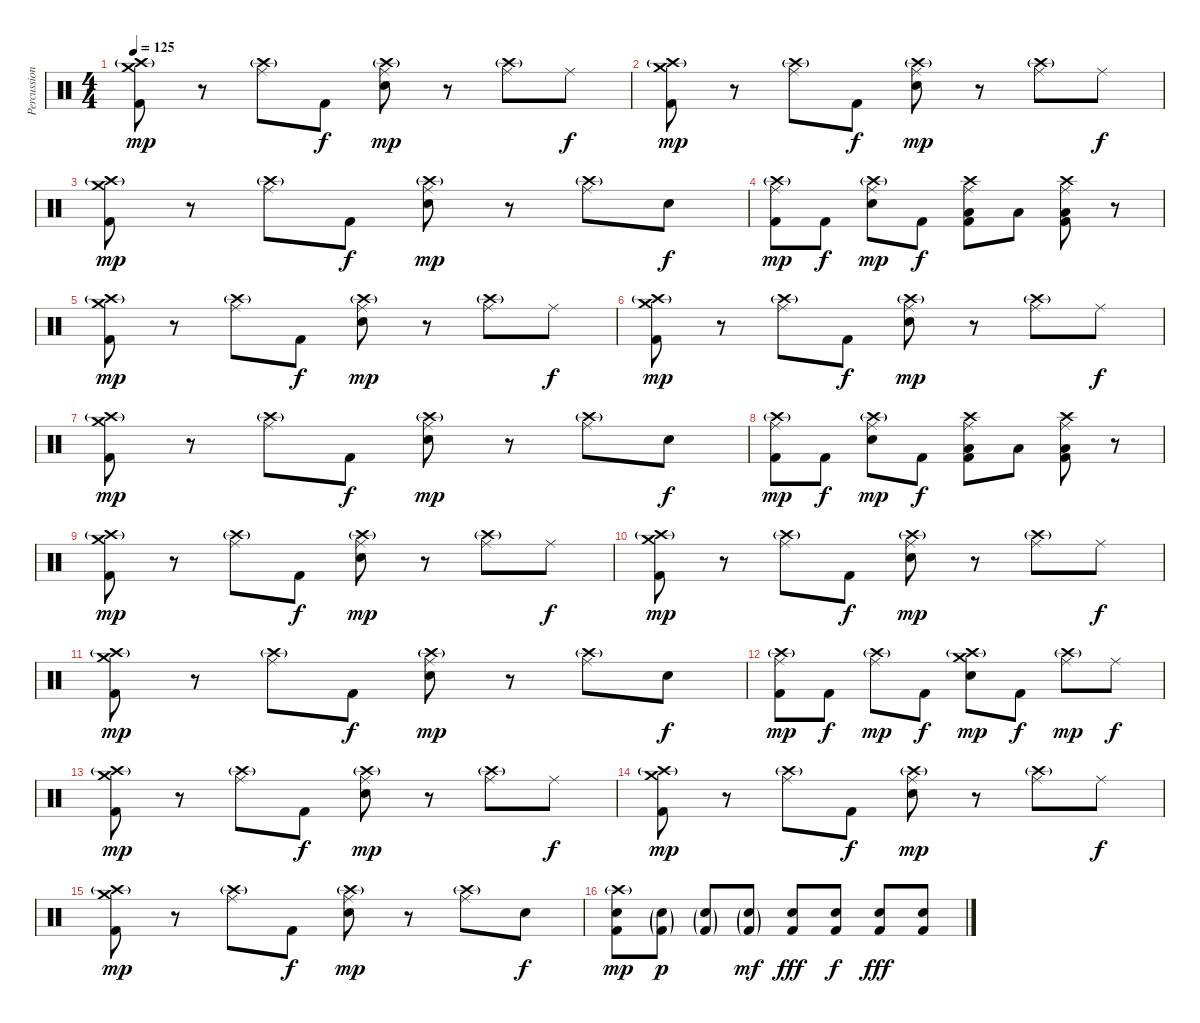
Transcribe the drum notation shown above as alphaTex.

\track ("Percussion" "Percussion") {instrument percussion}
\staff {score}
\articulation defaults
\ts (4 4)
\tempo 125
\clef neutral
\ks c
("Crash medium (hit)" "Crash high (hit)"{g} "Kick (hit) 2").8{dy mp} r.8 ("Ride (middle)" "Crash high (hit)"{g}).8 "Kick (hit) 2".8{dy f} ("Ride (middle)" "Crash high (hit)"{g} "Snare (hit) 2").8{dy mp} r.8 ("Ride (middle)" "Crash high (hit)"{g}).8 "Ride (middle)".8{dy f} |
("Crash medium (hit)" "Crash high (hit)"{g} "Kick (hit) 2").8{dy mp} r.8 ("Ride (middle)" "Crash high (hit)"{g}).8 "Kick (hit) 2".8{dy f} ("Ride (middle)" "Crash high (hit)"{g} "Snare (hit) 2").8{dy mp} r.8 ("Ride (middle)" "Crash high (hit)"{g}).8 "Ride (middle)".8{dy f} |
("Crash medium (hit)" "Crash high (hit)"{g} "Kick (hit) 2").8{dy mp} r.8 ("Ride (middle)" "Crash high (hit)"{g}).8 "Kick (hit) 2".8{dy f} ("Ride (middle)" "Crash high (hit)"{g} "Snare (hit) 2").8{dy mp} r.8 ("Ride (middle)" "Crash high (hit)"{g}).8 "Snare (hit) 2".8{dy f} |
("Ride (middle)" "Crash high (hit)"{g} "Kick (hit) 2").8{dy mp} "Kick (hit) 2".8{dy f} ("Ride (middle)" "Crash high (hit)"{g} "Snare (hit) 2").8{dy mp} "Kick (hit) 2".8{dy f} ("Ride (middle)" "Crash high (hit)" "Low Floor Tom (hit)" "Kick (hit) 2").8 "Low Tom (hit)".8 ("Ride (middle)" "Crash high (hit)" "Low Floor Tom (hit)" "Kick (hit) 2").8 r.8 |
("Crash medium (hit)" "Crash high (hit)"{g} "Kick (hit) 2").8{dy mp} r.8 ("Ride (middle)" "Crash high (hit)"{g}).8 "Kick (hit) 2".8{dy f} ("Ride (middle)" "Crash high (hit)"{g} "Snare (hit) 2").8{dy mp} r.8 ("Ride (middle)" "Crash high (hit)"{g}).8 "Ride (middle)".8{dy f} |
("Crash medium (hit)" "Crash high (hit)"{g} "Kick (hit) 2").8{dy mp} r.8 ("Ride (middle)" "Crash high (hit)"{g}).8 "Kick (hit) 2".8{dy f} ("Ride (middle)" "Crash high (hit)"{g} "Snare (hit) 2").8{dy mp} r.8 ("Ride (middle)" "Crash high (hit)"{g}).8 "Ride (middle)".8{dy f} |
("Crash medium (hit)" "Crash high (hit)"{g} "Kick (hit) 2").8{dy mp} r.8 ("Ride (middle)" "Crash high (hit)"{g}).8 "Kick (hit) 2".8{dy f} ("Ride (middle)" "Crash high (hit)"{g} "Snare (hit) 2").8{dy mp} r.8 ("Ride (middle)" "Crash high (hit)"{g}).8 "Snare (hit) 2".8{dy f} |
("Ride (middle)" "Crash high (hit)"{g} "Kick (hit) 2").8{dy mp} "Kick (hit) 2".8{dy f} ("Ride (middle)" "Crash high (hit)"{g} "Snare (hit) 2").8{dy mp} "Kick (hit) 2".8{dy f} ("Ride (middle)" "Crash high (hit)" "Low Floor Tom (hit)" "Kick (hit) 2").8 "Low Tom (hit)".8 ("Ride (middle)" "Crash high (hit)" "Low Floor Tom (hit)" "Kick (hit) 2").8 r.8 |
("Crash medium (hit)" "Crash high (hit)"{g} "Kick (hit) 2").8{dy mp} r.8 ("Ride (middle)" "Crash high (hit)"{g}).8 "Kick (hit) 2".8{dy f} ("Ride (middle)" "Crash high (hit)"{g} "Snare (hit) 2").8{dy mp} r.8 ("Ride (middle)" "Crash high (hit)"{g}).8 "Ride (middle)".8{dy f} |
("Crash medium (hit)" "Crash high (hit)"{g} "Kick (hit) 2").8{dy mp} r.8 ("Ride (middle)" "Crash high (hit)"{g}).8 "Kick (hit) 2".8{dy f} ("Ride (middle)" "Crash high (hit)"{g} "Snare (hit) 2").8{dy mp} r.8 ("Ride (middle)" "Crash high (hit)"{g}).8 "Ride (middle)".8{dy f} |
("Crash medium (hit)" "Crash high (hit)"{g} "Kick (hit) 2").8{dy mp} r.8 ("Ride (middle)" "Crash high (hit)"{g}).8 "Kick (hit) 2".8{dy f} ("Ride (middle)" "Crash high (hit)"{g} "Snare (hit) 2").8{dy mp} r.8 ("Ride (middle)" "Crash high (hit)"{g}).8 "Snare (hit) 2".8{dy f} |
("Ride (middle)" "Crash high (hit)"{g} "Kick (hit) 2").8{dy mp} "Kick (hit) 2".8{dy f} ("Ride (middle)" "Crash high (hit)"{g}).8{dy mp} "Kick (hit) 2".8{dy f} ("Crash medium (hit)" "Crash high (hit)"{g} "Snare (hit) 2").8{dy mp} "Kick (hit) 2".8{dy f} ("Ride (middle)" "Crash high (hit)"{g}).8{dy mp} "Ride (middle)".8{dy f} |
("Crash medium (hit)" "Crash high (hit)"{g} "Kick (hit) 2").8{dy mp} r.8 ("Ride (middle)" "Crash high (hit)"{g}).8 "Kick (hit) 2".8{dy f} ("Ride (middle)" "Crash high (hit)"{g} "Snare (hit) 2").8{dy mp} r.8 ("Ride (middle)" "Crash high (hit)"{g}).8 "Ride (middle)".8{dy f} |
("Crash medium (hit)" "Crash high (hit)"{g} "Kick (hit) 2").8{dy mp} r.8 ("Ride (middle)" "Crash high (hit)"{g}).8 "Kick (hit) 2".8{dy f} ("Ride (middle)" "Crash high (hit)"{g} "Snare (hit) 2").8{dy mp} r.8 ("Ride (middle)" "Crash high (hit)"{g}).8 "Ride (middle)".8{dy f} |
("Crash medium (hit)" "Crash high (hit)"{g} "Kick (hit) 2").8{dy mp} r.8 ("Ride (middle)" "Crash high (hit)"{g}).8 "Kick (hit) 2".8{dy f} ("Ride (middle)" "Crash high (hit)"{g} "Snare (hit) 2").8{dy mp} r.8 ("Ride (middle)" "Crash high (hit)"{g}).8 "Snare (hit) 2".8{dy f} |
("Crash high (hit)"{g} "Snare (hit) 2" "Kick (hit) 2").8{dy mp} ("Snare (hit) 2"{g} "Kick (hit) 2"{g}).8{dy p} ("Snare (hit) 2"{g} "Kick (hit) 2"{g}).8 ("Snare (hit) 2"{g} "Kick (hit) 2"{g}).8{dy mf} ("Snare (hit) 2" "Kick (hit) 2").8{dy fff} ("Snare (hit) 2" "Kick (hit) 2").8{dy f} ("Snare (hit) 2" "Kick (hit) 2").8{dy fff} ("Snare (hit) 2" "Kick (hit) 2").8
